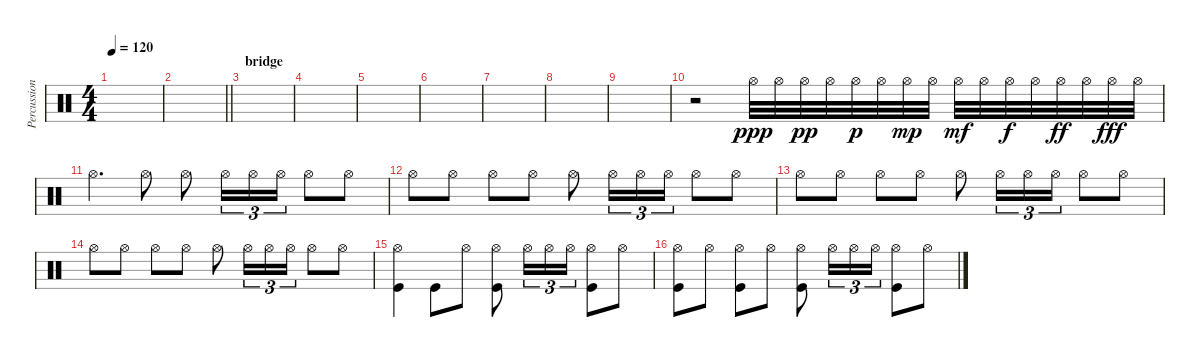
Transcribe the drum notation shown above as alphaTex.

\track ("Percussion" "Percussion") {instrument percussion}
\staff {score}
\articulation defaults
\ts (4 4)
\tempo 120
\clef neutral
\ks c
|
\barLineRight lightlight
|
\section ("" "bridge")
|
|
|
|
|
|
|
r.2 "Hi-Hat (open)".32{dy ppp} "Hi-Hat (open)".32 "Hi-Hat (open)".32{dy pp} "Hi-Hat (open)".32 "Hi-Hat (open)".32{dy p} "Hi-Hat (open)".32 "Hi-Hat (open)".32{dy mp} "Hi-Hat (open)".32 "Hi-Hat (open)".32{dy mf} "Hi-Hat (open)".32 "Hi-Hat (open)".32{dy f} "Hi-Hat (open)".32 "Hi-Hat (open)".32{dy ff} "Hi-Hat (open)".32 "Hi-Hat (open)".32{dy fff} "Hi-Hat (open)".32 |
"Hi-Hat (open)".4{d} "Hi-Hat (open)".8 "Hi-Hat (open)".8 "Hi-Hat (open)".16{tu (3 2)} "Hi-Hat (open)".16{tu (3 2)} "Hi-Hat (open)".16{tu (3 2)} "Hi-Hat (open)".8 "Hi-Hat (open)".8 |
"Hi-Hat (open)".8 "Hi-Hat (open)".8 "Hi-Hat (open)".8 "Hi-Hat (open)".8 "Hi-Hat (open)".8 "Hi-Hat (open)".16{tu (3 2)} "Hi-Hat (open)".16{tu (3 2)} "Hi-Hat (open)".16{tu (3 2)} "Hi-Hat (open)".8 "Hi-Hat (open)".8 |
"Hi-Hat (open)".8 "Hi-Hat (open)".8 "Hi-Hat (open)".8 "Hi-Hat (open)".8 "Hi-Hat (open)".8 "Hi-Hat (open)".16{tu (3 2)} "Hi-Hat (open)".16{tu (3 2)} "Hi-Hat (open)".16{tu (3 2)} "Hi-Hat (open)".8 "Hi-Hat (open)".8 |
"Hi-Hat (open)".8 "Hi-Hat (open)".8 "Hi-Hat (open)".8 "Hi-Hat (open)".8 "Hi-Hat (open)".8 "Hi-Hat (open)".16{tu (3 2)} "Hi-Hat (open)".16{tu (3 2)} "Hi-Hat (open)".16{tu (3 2)} "Hi-Hat (open)".8 "Hi-Hat (open)".8 |
("Hi-Hat (open)" "Kick (hit)").4 "Kick (hit)".8 "Hi-Hat (open)".8 ("Hi-Hat (open)" "Kick (hit)").8 "Hi-Hat (open)".16{tu (3 2)} "Hi-Hat (open)".16{tu (3 2)} "Hi-Hat (open)".16{tu (3 2)} ("Hi-Hat (open)" "Kick (hit)").8 "Hi-Hat (open)".8 |
("Hi-Hat (open)" "Kick (hit)").8 "Hi-Hat (open)".8 ("Hi-Hat (open)" "Kick (hit)").8 "Hi-Hat (open)".8 ("Hi-Hat (open)" "Kick (hit)").8 "Hi-Hat (open)".16{tu (3 2)} "Hi-Hat (open)".16{tu (3 2)} "Hi-Hat (open)".16{tu (3 2)} ("Hi-Hat (open)" "Kick (hit)").8 "Hi-Hat (open)".8
